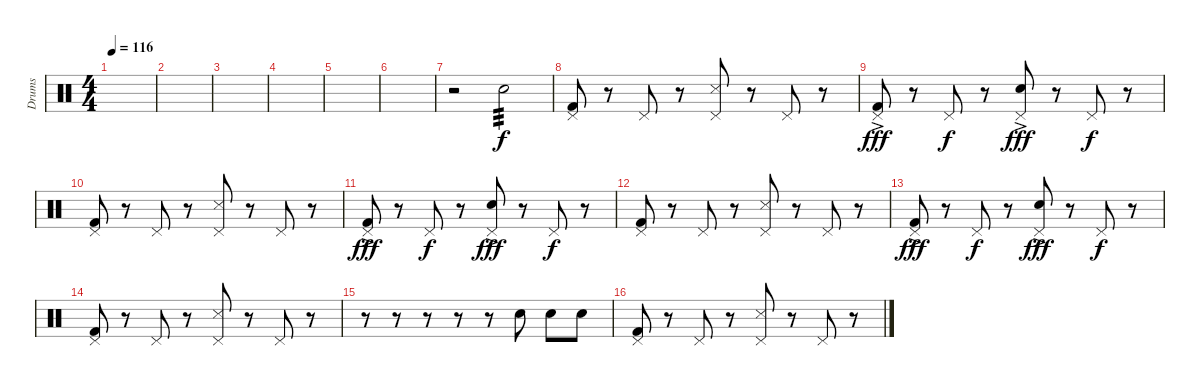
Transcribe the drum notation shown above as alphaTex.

\track ("Drums" "Drums") {instrument percussion}
\staff {score}
\articulation defaults
\ts (4 4)
\tempo 116
\clef neutral
\ks c
|
|
|
|
|
|
r.2 "Snare (hit) 2".2{tp 3 volume 13} |
("Kick (hit) 2" "Pedal Hi-Hat (hit)").8 r.8 "Pedal Hi-Hat (hit)".8 r.8 ("Snare (side stick) 3" "Pedal Hi-Hat (hit)").8 r.8 "Pedal Hi-Hat (hit)".8 r.8 |
("Kick (hit) 2"{ac} "Pedal Hi-Hat (hit)").8{dy fff} r.8 "Pedal Hi-Hat (hit)".8{dy f} r.8 ("Snare (hit) 2"{ac} "Pedal Hi-Hat (hit)").8{dy fff} r.8 "Pedal Hi-Hat (hit)".8{dy f} r.8 |
("Kick (hit) 2" "Pedal Hi-Hat (hit)").8 r.8 "Pedal Hi-Hat (hit)".8 r.8 ("Snare (side stick) 3" "Pedal Hi-Hat (hit)").8 r.8 "Pedal Hi-Hat (hit)".8 r.8 |
("Kick (hit) 2"{ac} "Pedal Hi-Hat (hit)").8{dy fff} r.8 "Pedal Hi-Hat (hit)".8{dy f} r.8 ("Snare (hit) 2"{ac} "Pedal Hi-Hat (hit)").8{dy fff} r.8 "Pedal Hi-Hat (hit)".8{dy f} r.8 |
("Kick (hit) 2" "Pedal Hi-Hat (hit)").8 r.8 "Pedal Hi-Hat (hit)".8 r.8 ("Snare (side stick) 3" "Pedal Hi-Hat (hit)").8 r.8 "Pedal Hi-Hat (hit)".8 r.8 |
("Kick (hit) 2"{ac} "Pedal Hi-Hat (hit)").8{dy fff} r.8 "Pedal Hi-Hat (hit)".8{dy f} r.8 ("Snare (hit) 2"{ac} "Pedal Hi-Hat (hit)").8{dy fff} r.8 "Pedal Hi-Hat (hit)".8{dy f} r.8 |
("Kick (hit) 2" "Pedal Hi-Hat (hit)").8 r.8 "Pedal Hi-Hat (hit)".8 r.8 ("Snare (side stick) 3" "Pedal Hi-Hat (hit)").8 r.8 "Pedal Hi-Hat (hit)".8 r.8 |
r.8 r.8 r.8 r.8 r.8 "Snare (hit) 2".8 "Snare (hit) 2".8 "Snare (hit) 2".8 |
("Kick (hit) 2" "Pedal Hi-Hat (hit)").8 r.8 "Pedal Hi-Hat (hit)".8 r.8 ("Snare (side stick) 3" "Pedal Hi-Hat (hit)").8 r.8 "Pedal Hi-Hat (hit)".8 r.8
